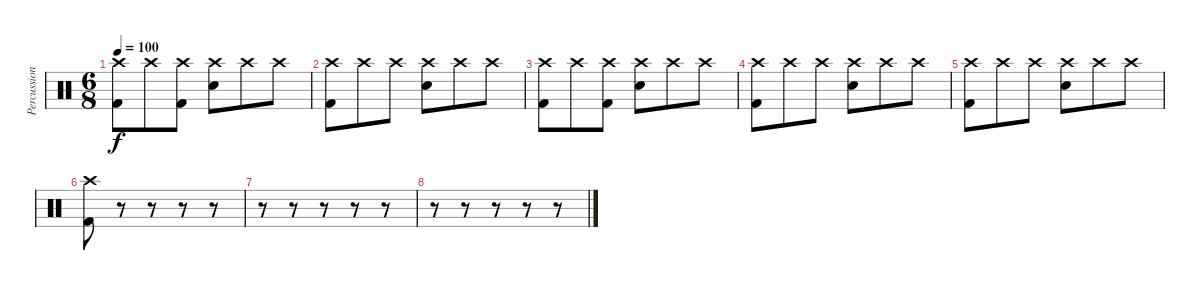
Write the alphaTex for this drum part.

\track ("Percussion" "Percussion") {instrument percussion}
\staff {score}
\articulation defaults
\ts (6 8)
\tempo 100
\clef neutral
\ks c
("Crash high (hit)" "Kick (hit) 2").8{dy f} "Crash high (hit)".8 ("Crash high (hit)" "Kick (hit) 2").8 ("Crash high (hit)" "Electric Snare (hit)").8 "Crash high (hit)".8 "Crash high (hit)".8 |
("Crash high (hit)" "Kick (hit) 2").8 "Crash high (hit)".8 "Crash high (hit)".8 ("Crash high (hit)" "Electric Snare (hit)").8 "Crash high (hit)".8 "Crash high (hit)".8 |
("Crash high (hit)" "Kick (hit) 2").8 "Crash high (hit)".8 ("Crash high (hit)" "Kick (hit) 2").8 ("Crash high (hit)" "Electric Snare (hit)").8 "Crash high (hit)".8 "Crash high (hit)".8 |
("Crash high (hit)" "Kick (hit) 2").8 "Crash high (hit)".8 "Crash high (hit)".8 ("Crash high (hit)" "Electric Snare (hit)").8 "Crash high (hit)".8 "Crash high (hit)".8 |
("Crash high (hit)" "Kick (hit) 2").8 "Crash high (hit)".8 "Crash high (hit)".8 ("Crash high (hit)" "Electric Snare (hit)").8 "Crash high (hit)".8 "Crash high (hit)".8 |
("Crash high (hit)" "Kick (hit) 2").8 r.8 r.8 r.8 r.8 |
r.8 r.8 r.8 r.8 r.8 |
r.8 r.8 r.8 r.8 r.8
